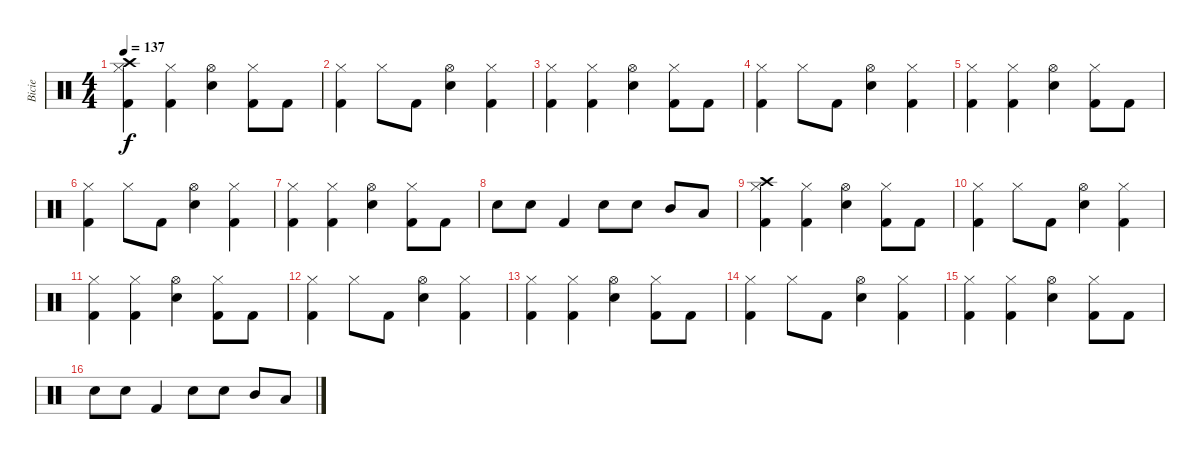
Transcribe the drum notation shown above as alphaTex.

\track ("Bicie" "Bicie") {instrument percussion}
\staff {score}
\articulation defaults
\ts (4 4)
\tempo 137
\clef neutral
\ks c
("Hi-Hat (closed)" "Crash high (hit)" "Kick (hit) 2").4{dy f} ("Hi-Hat (closed)" "Kick (hit) 2").4 ("Hi-Hat (open)" "Electric Snare (hit)").4 ("Hi-Hat (closed)" "Kick (hit) 2").8 "Kick (hit) 2".8 |
("Hi-Hat (closed)" "Kick (hit) 2").4 "Hi-Hat (closed)".8 "Kick (hit) 2".8 ("Hi-Hat (open)" "Electric Snare (hit)").4 ("Hi-Hat (closed)" "Kick (hit) 2").4 |
("Hi-Hat (closed)" "Kick (hit) 2").4 ("Hi-Hat (closed)" "Kick (hit) 2").4 ("Hi-Hat (open)" "Electric Snare (hit)").4 ("Hi-Hat (closed)" "Kick (hit) 2").8 "Kick (hit) 2".8 |
("Hi-Hat (closed)" "Kick (hit) 2").4 "Hi-Hat (closed)".8 "Kick (hit) 2".8 ("Hi-Hat (open)" "Electric Snare (hit)").4 ("Hi-Hat (closed)" "Kick (hit) 2").4 |
("Hi-Hat (closed)" "Kick (hit) 2").4 ("Hi-Hat (closed)" "Kick (hit) 2").4 ("Hi-Hat (open)" "Electric Snare (hit)").4 ("Hi-Hat (closed)" "Kick (hit) 2").8 "Kick (hit) 2".8 |
("Hi-Hat (closed)" "Kick (hit) 2").4 "Hi-Hat (closed)".8 "Kick (hit) 2".8 ("Hi-Hat (open)" "Electric Snare (hit)").4 ("Hi-Hat (closed)" "Kick (hit) 2").4 |
("Hi-Hat (closed)" "Kick (hit) 2").4 ("Hi-Hat (closed)" "Kick (hit) 2").4 ("Hi-Hat (open)" "Electric Snare (hit)").4 ("Hi-Hat (closed)" "Kick (hit) 2").8 "Kick (hit) 2".8 |
"Electric Snare (hit)".8 "Electric Snare (hit)".8 "Kick (hit) 2".4 "Electric Snare (hit)".8 "Electric Snare (hit)".8 "Mid Tom (hit)".8 "Low Tom (hit)".8 |
("Hi-Hat (closed)" "Crash high (hit)" "Kick (hit) 2").4 ("Hi-Hat (closed)" "Kick (hit) 2").4 ("Hi-Hat (open)" "Electric Snare (hit)").4 ("Hi-Hat (closed)" "Kick (hit) 2").8 "Kick (hit) 2".8 |
("Hi-Hat (closed)" "Kick (hit) 2").4 "Hi-Hat (closed)".8 "Kick (hit) 2".8 ("Hi-Hat (open)" "Electric Snare (hit)").4 ("Hi-Hat (closed)" "Kick (hit) 2").4 |
("Hi-Hat (closed)" "Kick (hit) 2").4 ("Hi-Hat (closed)" "Kick (hit) 2").4 ("Hi-Hat (open)" "Electric Snare (hit)").4 ("Hi-Hat (closed)" "Kick (hit) 2").8 "Kick (hit) 2".8 |
("Hi-Hat (closed)" "Kick (hit) 2").4 "Hi-Hat (closed)".8 "Kick (hit) 2".8 ("Hi-Hat (open)" "Electric Snare (hit)").4 ("Hi-Hat (closed)" "Kick (hit) 2").4 |
("Hi-Hat (closed)" "Kick (hit) 2").4 ("Hi-Hat (closed)" "Kick (hit) 2").4 ("Hi-Hat (open)" "Electric Snare (hit)").4 ("Hi-Hat (closed)" "Kick (hit) 2").8 "Kick (hit) 2".8 |
("Hi-Hat (closed)" "Kick (hit) 2").4 "Hi-Hat (closed)".8 "Kick (hit) 2".8 ("Hi-Hat (open)" "Electric Snare (hit)").4 ("Hi-Hat (closed)" "Kick (hit) 2").4 |
("Hi-Hat (closed)" "Kick (hit) 2").4 ("Hi-Hat (closed)" "Kick (hit) 2").4 ("Hi-Hat (open)" "Electric Snare (hit)").4 ("Hi-Hat (closed)" "Kick (hit) 2").8 "Kick (hit) 2".8 |
"Electric Snare (hit)".8 "Electric Snare (hit)".8 "Kick (hit) 2".4 "Electric Snare (hit)".8 "Electric Snare (hit)".8 "Mid Tom (hit)".8 "Low Tom (hit)".8
